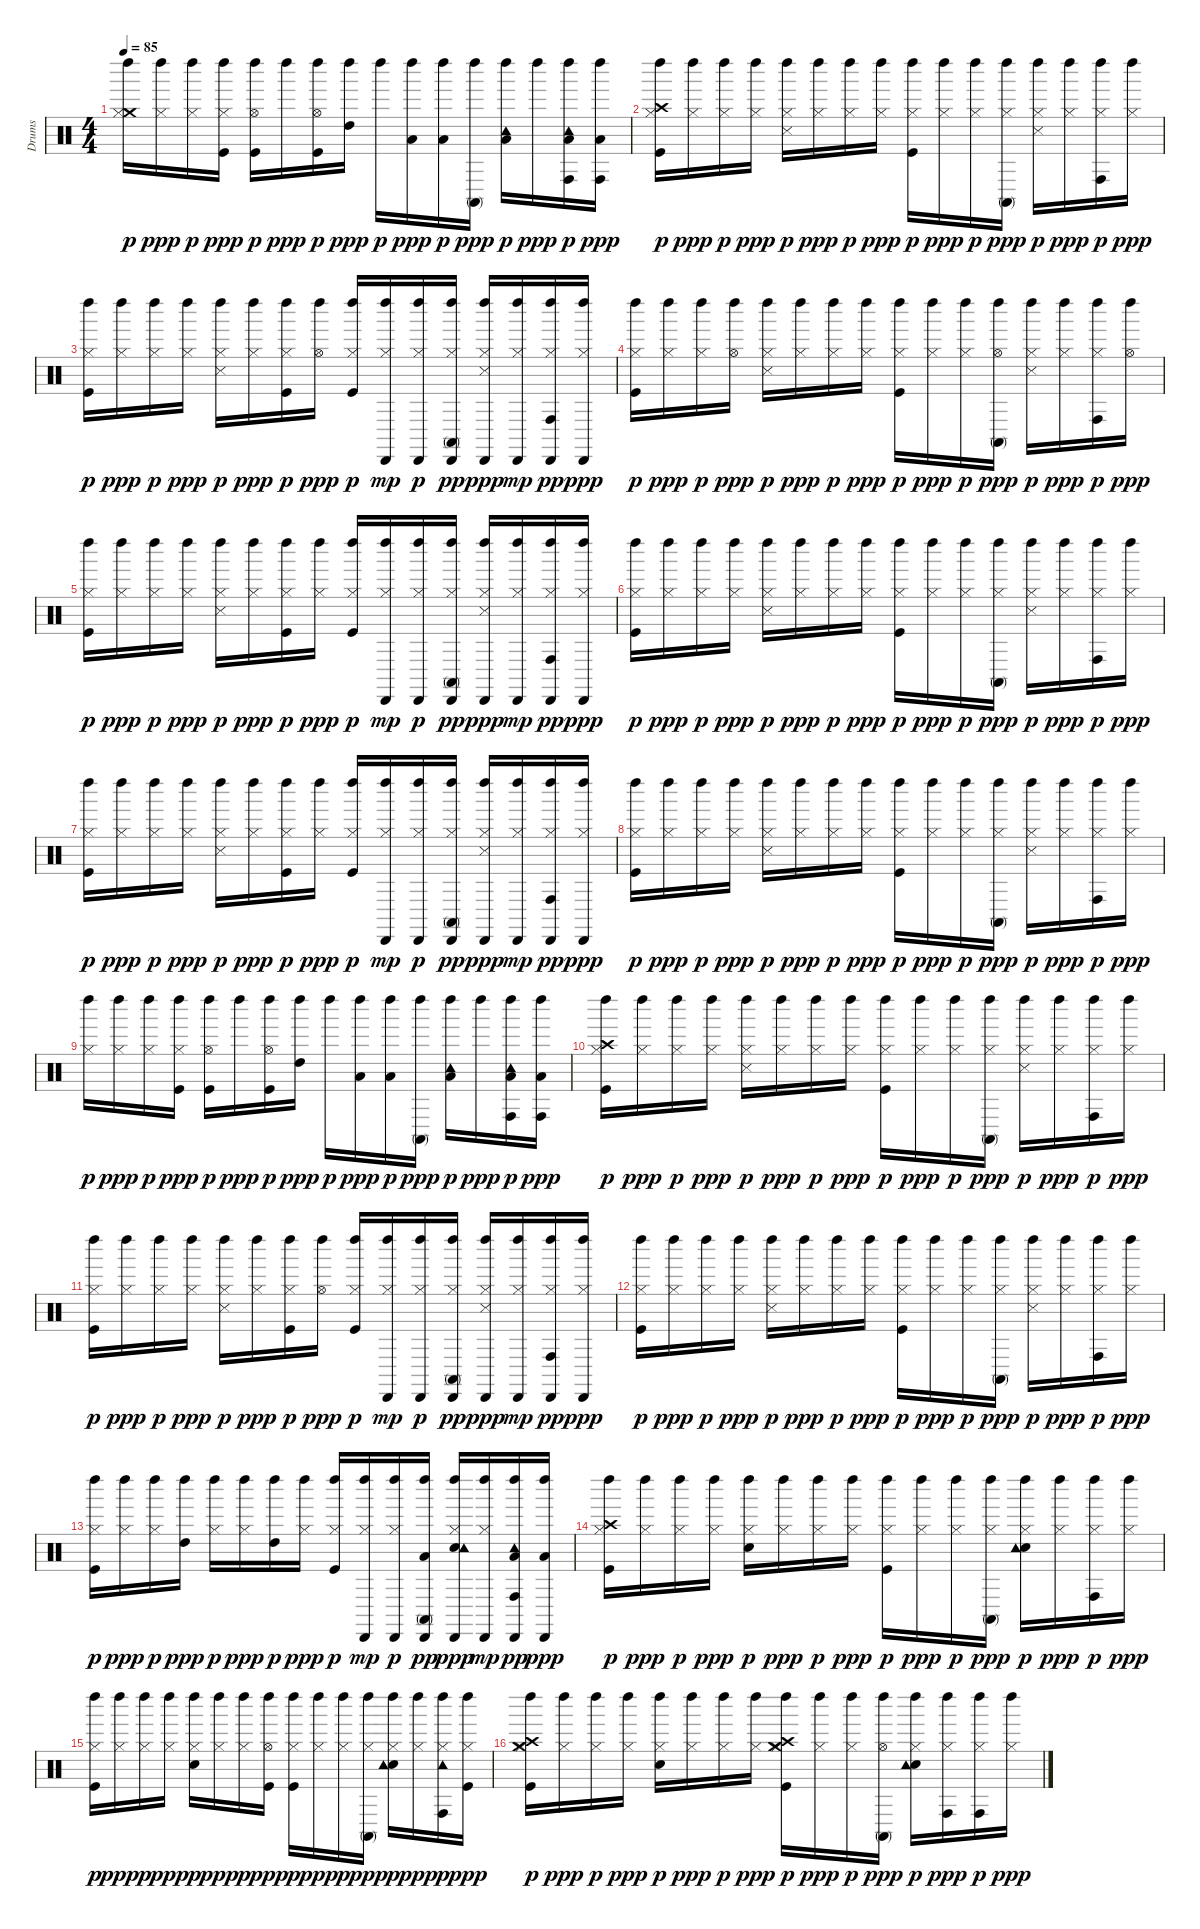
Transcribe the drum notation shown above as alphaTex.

\track ("Drums" "Drums") {instrument percussion}
\staff {score}
\articulation defaults
\ts (4 4)
\tempo 85
\clef neutral
\ks c
("Crash medium (hit)" "Hi-Hat (closed)" "Left Maraca (hit)").16{dy p} ("Hi-Hat (closed)" "Left Maraca (hit)").16{dy ppp} ("Hi-Hat (closed)" "Left Maraca (hit)").16{dy p} ("Kick (hit)" "Hi-Hat (closed)" "Left Maraca (hit)").16{dy ppp} ("Kick (hit)" "Hi-Hat (open)" "Left Maraca (hit)").16{dy p} "Left Maraca (hit)".16{dy ppp} ("Kick (hit)" "Hi-Hat (open)" "Left Maraca (hit)").16{dy p} ("High Tom (hit)" "Left Maraca (hit)").16{dy ppp} "Left Maraca (hit)".16{dy p} ("Low Tom (hit)" "Left Maraca (hit)").16{dy ppp} ("Low Tom (hit)" "Left Maraca (hit)").16{dy p} ("Conga high (mute)" "Left Maraca (hit)").16{dy ppp} ("Low Tom (hit)" "Tambourine (hit)" "Left Maraca (hit)").16{dy p} "Left Maraca (hit)".16{dy ppp} ("Low Floor Tom (hit)" "Conga high (hit)" "Tambourine (hit)" "Left Maraca (hit)").16{dy p} ("Low Floor Tom (hit)" "Conga high (hit)" "Left Maraca (hit)").16{dy ppp} |
("Kick (hit)" "Hi-Hat (closed)" "Crash high (hit)" "Left Maraca (hit)").16{dy p} ("Hi-Hat (closed)" "Left Maraca (hit)").16{dy ppp} ("Hi-Hat (closed)" "Left Maraca (hit)").16{dy p} ("Hi-Hat (closed)" "Left Maraca (hit)").16{dy ppp} ("Hi-Hat (closed)" "Snare (side stick) 3" "Left Maraca (hit)").16{dy p} ("Hi-Hat (closed)" "Left Maraca (hit)").16{dy ppp} ("Hi-Hat (closed)" "Left Maraca (hit)").16{dy p} ("Hi-Hat (closed)" "Left Maraca (hit)").16{dy ppp} ("Kick (hit)" "Hi-Hat (closed)" "Left Maraca (hit)").16{dy p} ("Hi-Hat (closed)" "Left Maraca (hit)").16{dy ppp} ("Hi-Hat (closed)" "Left Maraca (hit)").16{dy p} ("Hi-Hat (closed)" "Conga high (mute)" "Left Maraca (hit)").16{dy ppp} ("Hi-Hat (closed)" "Snare (side stick) 3" "Left Maraca (hit)").16{dy p} ("Hi-Hat (closed)" "Left Maraca (hit)").16{dy ppp} ("Hi-Hat (closed)" "Conga high (hit)" "Left Maraca (hit)").16{dy p} ("Hi-Hat (closed)" "Left Maraca (hit)").16{dy ppp} |
("Kick (hit)" "Hi-Hat (closed)" "Left Maraca (hit)").16{dy p} ("Hi-Hat (closed)" "Left Maraca (hit)").16{dy ppp} ("Hi-Hat (closed)" "Left Maraca (hit)").16{dy p} ("Hi-Hat (closed)" "Left Maraca (hit)").16{dy ppp} ("Hi-Hat (closed)" "Snare (side stick) 3" "Left Maraca (hit)").16{dy p} ("Hi-Hat (closed)" "Left Maraca (hit)").16{dy ppp} ("Kick (hit)" "Hi-Hat (closed)" "Left Maraca (hit)").16{dy p} ("Hi-Hat (open)" "Left Maraca (hit)").16{dy ppp} ("Kick (hit)" "Hi-Hat (closed)" "Left Maraca (hit)").16{dy p} ("Hi-Hat (closed)" "Left Maraca (hit)" "Cabasa (hit)").16{dy mp} ("Hi-Hat (closed)" "Left Maraca (hit)" "Cabasa (hit)").16{dy p} ("Hi-Hat (closed)" "Conga high (mute)" "Left Maraca (hit)" "Cabasa (hit)").16{dy pp} ("Hi-Hat (closed)" "Snare (side stick) 3" "Left Maraca (hit)" "Cabasa (hit)").16{dy ppp} ("Hi-Hat (closed)" "Left Maraca (hit)" "Cabasa (hit)").16{dy mp} ("Hi-Hat (closed)" "Conga high (hit)" "Left Maraca (hit)" "Cabasa (hit)").16{dy pp} ("Hi-Hat (closed)" "Left Maraca (hit)" "Cabasa (hit)").16{dy ppp} |
("Kick (hit)" "Hi-Hat (closed)" "Left Maraca (hit)").16{dy p} ("Hi-Hat (closed)" "Left Maraca (hit)").16{dy ppp} ("Hi-Hat (closed)" "Left Maraca (hit)").16{dy p} ("Hi-Hat (open)" "Left Maraca (hit)").16{dy ppp} ("Hi-Hat (closed)" "Snare (side stick) 3" "Left Maraca (hit)").16{dy p} ("Hi-Hat (closed)" "Left Maraca (hit)").16{dy ppp} ("Hi-Hat (closed)" "Left Maraca (hit)").16{dy p} ("Hi-Hat (closed)" "Left Maraca (hit)").16{dy ppp} ("Kick (hit)" "Hi-Hat (closed)" "Left Maraca (hit)").16{dy p} ("Hi-Hat (closed)" "Left Maraca (hit)").16{dy ppp} ("Hi-Hat (closed)" "Left Maraca (hit)").16{dy p} ("Hi-Hat (open)" "Conga high (mute)" "Left Maraca (hit)").16{dy ppp} ("Hi-Hat (closed)" "Snare (side stick) 3" "Left Maraca (hit)").16{dy p} ("Hi-Hat (closed)" "Left Maraca (hit)").16{dy ppp} ("Hi-Hat (closed)" "Conga high (hit)" "Left Maraca (hit)").16{dy p} ("Hi-Hat (open)" "Left Maraca (hit)").16{dy ppp} |
("Kick (hit)" "Hi-Hat (closed)" "Left Maraca (hit)").16{dy p} ("Hi-Hat (closed)" "Left Maraca (hit)").16{dy ppp} ("Hi-Hat (closed)" "Left Maraca (hit)").16{dy p} ("Hi-Hat (closed)" "Left Maraca (hit)").16{dy ppp} ("Hi-Hat (closed)" "Snare (side stick) 3" "Left Maraca (hit)").16{dy p} ("Hi-Hat (closed)" "Left Maraca (hit)").16{dy ppp} ("Kick (hit)" "Hi-Hat (closed)" "Left Maraca (hit)").16{dy p} ("Hi-Hat (closed)" "Left Maraca (hit)").16{dy ppp} ("Kick (hit)" "Hi-Hat (closed)" "Left Maraca (hit)").16{dy p} ("Hi-Hat (closed)" "Left Maraca (hit)" "Cabasa (hit)").16{dy mp} ("Hi-Hat (closed)" "Left Maraca (hit)" "Cabasa (hit)").16{dy p} ("Hi-Hat (closed)" "Conga high (mute)" "Left Maraca (hit)" "Cabasa (hit)").16{dy pp} ("Hi-Hat (closed)" "Snare (side stick) 3" "Left Maraca (hit)" "Cabasa (hit)").16{dy ppp} ("Hi-Hat (closed)" "Left Maraca (hit)" "Cabasa (hit)").16{dy mp} ("Hi-Hat (closed)" "Conga high (hit)" "Left Maraca (hit)" "Cabasa (hit)").16{dy pp} ("Hi-Hat (closed)" "Left Maraca (hit)" "Cabasa (hit)").16{dy ppp} |
("Kick (hit)" "Hi-Hat (closed)" "Left Maraca (hit)").16{dy p} ("Hi-Hat (closed)" "Left Maraca (hit)").16{dy ppp} ("Hi-Hat (closed)" "Left Maraca (hit)").16{dy p} ("Hi-Hat (closed)" "Left Maraca (hit)").16{dy ppp} ("Hi-Hat (closed)" "Snare (side stick) 3" "Left Maraca (hit)").16{dy p} ("Hi-Hat (closed)" "Left Maraca (hit)").16{dy ppp} ("Hi-Hat (closed)" "Left Maraca (hit)").16{dy p} ("Hi-Hat (closed)" "Left Maraca (hit)").16{dy ppp} ("Kick (hit)" "Hi-Hat (closed)" "Left Maraca (hit)").16{dy p} ("Hi-Hat (closed)" "Left Maraca (hit)").16{dy ppp} ("Hi-Hat (closed)" "Left Maraca (hit)").16{dy p} ("Hi-Hat (closed)" "Conga high (mute)" "Left Maraca (hit)").16{dy ppp} ("Hi-Hat (closed)" "Snare (side stick) 3" "Left Maraca (hit)").16{dy p} ("Hi-Hat (closed)" "Left Maraca (hit)").16{dy ppp} ("Hi-Hat (closed)" "Conga high (hit)" "Left Maraca (hit)").16{dy p} ("Hi-Hat (closed)" "Left Maraca (hit)").16{dy ppp} |
("Kick (hit)" "Hi-Hat (closed)" "Left Maraca (hit)").16{dy p} ("Hi-Hat (closed)" "Left Maraca (hit)").16{dy ppp} ("Hi-Hat (closed)" "Left Maraca (hit)").16{dy p} ("Hi-Hat (closed)" "Left Maraca (hit)").16{dy ppp} ("Hi-Hat (closed)" "Snare (side stick) 3" "Left Maraca (hit)").16{dy p} ("Hi-Hat (closed)" "Left Maraca (hit)").16{dy ppp} ("Kick (hit)" "Hi-Hat (closed)" "Left Maraca (hit)").16{dy p} ("Hi-Hat (closed)" "Left Maraca (hit)").16{dy ppp} ("Kick (hit)" "Hi-Hat (closed)" "Left Maraca (hit)").16{dy p} ("Hi-Hat (closed)" "Left Maraca (hit)" "Cabasa (hit)").16{dy mp} ("Hi-Hat (closed)" "Left Maraca (hit)" "Cabasa (hit)").16{dy p} ("Hi-Hat (closed)" "Conga high (mute)" "Left Maraca (hit)" "Cabasa (hit)").16{dy pp} ("Hi-Hat (closed)" "Snare (side stick) 3" "Left Maraca (hit)" "Cabasa (hit)").16{dy ppp} ("Hi-Hat (closed)" "Left Maraca (hit)" "Cabasa (hit)").16{dy mp} ("Hi-Hat (closed)" "Conga high (hit)" "Left Maraca (hit)" "Cabasa (hit)").16{dy pp} ("Hi-Hat (closed)" "Left Maraca (hit)" "Cabasa (hit)").16{dy ppp} |
("Kick (hit)" "Hi-Hat (closed)" "Left Maraca (hit)").16{dy p} ("Hi-Hat (closed)" "Left Maraca (hit)").16{dy ppp} ("Hi-Hat (closed)" "Left Maraca (hit)").16{dy p} ("Hi-Hat (closed)" "Left Maraca (hit)").16{dy ppp} ("Hi-Hat (closed)" "Snare (side stick) 3" "Left Maraca (hit)").16{dy p} ("Hi-Hat (closed)" "Left Maraca (hit)").16{dy ppp} ("Hi-Hat (closed)" "Left Maraca (hit)").16{dy p} ("Hi-Hat (closed)" "Left Maraca (hit)").16{dy ppp} ("Kick (hit)" "Hi-Hat (closed)" "Left Maraca (hit)").16{dy p} ("Hi-Hat (closed)" "Left Maraca (hit)").16{dy ppp} ("Hi-Hat (closed)" "Left Maraca (hit)").16{dy p} ("Hi-Hat (closed)" "Conga high (mute)" "Left Maraca (hit)").16{dy ppp} ("Hi-Hat (closed)" "Snare (side stick) 3" "Left Maraca (hit)").16{dy p} ("Hi-Hat (closed)" "Left Maraca (hit)").16{dy ppp} ("Hi-Hat (closed)" "Conga high (hit)" "Left Maraca (hit)").16{dy p} ("Hi-Hat (closed)" "Left Maraca (hit)").16{dy ppp} |
("Hi-Hat (closed)" "Left Maraca (hit)").16{dy p} ("Hi-Hat (closed)" "Left Maraca (hit)").16{dy ppp} ("Hi-Hat (closed)" "Left Maraca (hit)").16{dy p} ("Kick (hit)" "Hi-Hat (closed)" "Left Maraca (hit)").16{dy ppp} ("Kick (hit)" "Hi-Hat (open)" "Left Maraca (hit)").16{dy p} "Left Maraca (hit)".16{dy ppp} ("Kick (hit)" "Hi-Hat (open)" "Left Maraca (hit)").16{dy p} ("High Tom (hit)" "Left Maraca (hit)").16{dy ppp} "Left Maraca (hit)".16{dy p} ("Low Tom (hit)" "Left Maraca (hit)").16{dy ppp} ("Low Tom (hit)" "Left Maraca (hit)").16{dy p} ("Conga high (mute)" "Left Maraca (hit)").16{dy ppp} ("Low Tom (hit)" "Tambourine (hit)" "Left Maraca (hit)").16{dy p} "Left Maraca (hit)".16{dy ppp} ("Low Floor Tom (hit)" "Conga high (hit)" "Tambourine (hit)" "Left Maraca (hit)").16{dy p} ("Low Floor Tom (hit)" "Conga high (hit)" "Left Maraca (hit)").16{dy ppp} |
("Kick (hit)" "Hi-Hat (closed)" "Crash high (hit)" "Left Maraca (hit)").16{dy p} ("Hi-Hat (closed)" "Left Maraca (hit)").16{dy ppp} ("Hi-Hat (closed)" "Left Maraca (hit)").16{dy p} ("Hi-Hat (closed)" "Left Maraca (hit)").16{dy ppp} ("Hi-Hat (closed)" "Snare (side stick) 3" "Left Maraca (hit)").16{dy p} ("Hi-Hat (closed)" "Left Maraca (hit)").16{dy ppp} ("Hi-Hat (closed)" "Left Maraca (hit)").16{dy p} ("Hi-Hat (closed)" "Left Maraca (hit)").16{dy ppp} ("Kick (hit)" "Hi-Hat (closed)" "Left Maraca (hit)").16{dy p} ("Hi-Hat (closed)" "Left Maraca (hit)").16{dy ppp} ("Hi-Hat (closed)" "Left Maraca (hit)").16{dy p} ("Hi-Hat (closed)" "Conga high (mute)" "Left Maraca (hit)").16{dy ppp} ("Hi-Hat (closed)" "Snare (side stick) 3" "Left Maraca (hit)").16{dy p} ("Hi-Hat (closed)" "Left Maraca (hit)").16{dy ppp} ("Hi-Hat (closed)" "Conga high (hit)" "Left Maraca (hit)").16{dy p} ("Hi-Hat (closed)" "Left Maraca (hit)").16{dy ppp} |
("Kick (hit)" "Hi-Hat (closed)" "Left Maraca (hit)").16{dy p} ("Hi-Hat (closed)" "Left Maraca (hit)").16{dy ppp} ("Hi-Hat (closed)" "Left Maraca (hit)").16{dy p} ("Hi-Hat (closed)" "Left Maraca (hit)").16{dy ppp} ("Hi-Hat (closed)" "Snare (side stick) 3" "Left Maraca (hit)").16{dy p} ("Hi-Hat (closed)" "Left Maraca (hit)").16{dy ppp} ("Kick (hit)" "Hi-Hat (closed)" "Left Maraca (hit)").16{dy p} ("Hi-Hat (open)" "Left Maraca (hit)").16{dy ppp} ("Kick (hit)" "Hi-Hat (closed)" "Left Maraca (hit)").16{dy p} ("Hi-Hat (closed)" "Left Maraca (hit)" "Cabasa (hit)").16{dy mp} ("Hi-Hat (closed)" "Left Maraca (hit)" "Cabasa (hit)").16{dy p} ("Hi-Hat (closed)" "Conga high (mute)" "Left Maraca (hit)" "Cabasa (hit)").16{dy pp} ("Hi-Hat (closed)" "Snare (side stick) 3" "Left Maraca (hit)" "Cabasa (hit)").16{dy ppp} ("Hi-Hat (closed)" "Left Maraca (hit)" "Cabasa (hit)").16{dy mp} ("Hi-Hat (closed)" "Conga high (hit)" "Left Maraca (hit)" "Cabasa (hit)").16{dy pp} ("Hi-Hat (closed)" "Left Maraca (hit)" "Cabasa (hit)").16{dy ppp} |
("Kick (hit)" "Hi-Hat (closed)" "Left Maraca (hit)").16{dy p} ("Hi-Hat (closed)" "Left Maraca (hit)").16{dy ppp} ("Hi-Hat (closed)" "Left Maraca (hit)").16{dy p} ("Hi-Hat (closed)" "Left Maraca (hit)").16{dy ppp} ("Hi-Hat (closed)" "Snare (side stick) 3" "Left Maraca (hit)").16{dy p} ("Hi-Hat (closed)" "Left Maraca (hit)").16{dy ppp} ("Hi-Hat (closed)" "Left Maraca (hit)").16{dy p} ("Hi-Hat (closed)" "Left Maraca (hit)").16{dy ppp} ("Kick (hit)" "Hi-Hat (closed)" "Left Maraca (hit)").16{dy p} ("Hi-Hat (closed)" "Left Maraca (hit)").16{dy ppp} ("Hi-Hat (closed)" "Left Maraca (hit)").16{dy p} ("Hi-Hat (closed)" "Conga high (mute)" "Left Maraca (hit)").16{dy ppp} ("Hi-Hat (closed)" "Snare (side stick) 3" "Left Maraca (hit)").16{dy p} ("Hi-Hat (closed)" "Left Maraca (hit)").16{dy ppp} ("Hi-Hat (closed)" "Conga high (hit)" "Left Maraca (hit)").16{dy p} ("Hi-Hat (closed)" "Left Maraca (hit)").16{dy ppp} |
("Kick (hit)" "Hi-Hat (closed)" "Left Maraca (hit)").16{dy p} ("Hi-Hat (closed)" "Left Maraca (hit)").16{dy ppp} ("Hi-Hat (closed)" "Left Maraca (hit)").16{dy p} ("High Tom (hit)" "Left Maraca (hit)").16{dy ppp} ("Hi-Hat (closed)" "Left Maraca (hit)").16{dy p} ("Hi-Hat (closed)" "Left Maraca (hit)").16{dy ppp} ("High Tom (hit)" "Left Maraca (hit)").16{dy p} ("Hi-Hat (closed)" "Left Maraca (hit)").16{dy ppp} ("Kick (hit)" "Hi-Hat (closed)" "Left Maraca (hit)").16{dy p} ("Hi-Hat (closed)" "Left Maraca (hit)" "Cabasa (hit)").16{dy mp} ("Hi-Hat (closed)" "Left Maraca (hit)" "Cabasa (hit)").16{dy p} ("Low Tom (hit)" "Conga high (mute)" "Left Maraca (hit)" "Cabasa (hit)").16{dy pp} ("Snare (hit) 2" "Hi-Hat (closed)" "Tambourine (hit)" "Left Maraca (hit)" "Cabasa (hit)").16{dy ppp} ("Hi-Hat (closed)" "Left Maraca (hit)" "Cabasa (hit)").16{dy mp} ("Low Floor Tom (hit)" "Conga high (hit)" "Tambourine (hit)" "Left Maraca (hit)" "Cabasa (hit)").16{dy pp} ("Low Floor Tom (hit)" "Left Maraca (hit)" "Cabasa (hit)").16{dy ppp} |
("Kick (hit)" "Hi-Hat (closed)" "Crash high (hit)" "Left Maraca (hit)").16{dy p} ("Hi-Hat (closed)" "Left Maraca (hit)").16{dy ppp} ("Hi-Hat (closed)" "Left Maraca (hit)").16{dy p} ("Hi-Hat (closed)" "Left Maraca (hit)").16{dy ppp} ("Snare (hit) 2" "Hi-Hat (closed)" "Left Maraca (hit)").16{dy p} ("Hi-Hat (closed)" "Left Maraca (hit)").16{dy ppp} ("Hi-Hat (closed)" "Left Maraca (hit)").16{dy p} ("Hi-Hat (closed)" "Left Maraca (hit)").16{dy ppp} ("Kick (hit)" "Hi-Hat (closed)" "Left Maraca (hit)").16{dy p} ("Hi-Hat (closed)" "Left Maraca (hit)").16{dy ppp} ("Hi-Hat (closed)" "Left Maraca (hit)").16{dy p} ("Hi-Hat (closed)" "Conga high (mute)" "Left Maraca (hit)").16{dy ppp} ("Snare (hit) 2" "Hi-Hat (closed)" "Tambourine (hit)" "Left Maraca (hit)").16{dy p} ("Hi-Hat (closed)" "Left Maraca (hit)").16{dy ppp} ("Hi-Hat (closed)" "Conga high (hit)" "Left Maraca (hit)").16{dy p} ("Hi-Hat (closed)" "Left Maraca (hit)").16{dy ppp} |
("Kick (hit)" "Hi-Hat (closed)" "Left Maraca (hit)").16{dy p} ("Hi-Hat (closed)" "Left Maraca (hit)").16{dy ppp} ("Hi-Hat (closed)" "Left Maraca (hit)").16{dy p} ("Hi-Hat (closed)" "Left Maraca (hit)").16{dy ppp} ("Snare (hit) 2" "Hi-Hat (closed)" "Left Maraca (hit)").16{dy p} ("Hi-Hat (closed)" "Left Maraca (hit)").16{dy ppp} ("Hi-Hat (closed)" "Left Maraca (hit)").16{dy p} ("Kick (hit)" "Hi-Hat (open)" "Left Maraca (hit)").16{dy ppp} ("Kick (hit)" "Hi-Hat (closed)" "Left Maraca (hit)").16{dy p} ("Hi-Hat (closed)" "Left Maraca (hit)").16{dy ppp} ("Hi-Hat (closed)" "Left Maraca (hit)").16{dy p} ("Hi-Hat (closed)" "Conga high (mute)" "Left Maraca (hit)").16{dy ppp} ("Snare (hit) 2" "Hi-Hat (closed)" "Tambourine (hit)" "Left Maraca (hit)").16{dy p} ("Hi-Hat (closed)" "Left Maraca (hit)").16{dy ppp} ("Hi-Hat (closed)" "Conga high (hit)" "Tambourine (hit)" "Left Maraca (hit)").16{dy p} ("Kick (hit)" "Hi-Hat (closed)" "Left Maraca (hit)").16{dy ppp} |
("Crash medium (hit)" "Crash high (hit)" "Kick (hit)" "Hi-Hat (closed)" "Left Maraca (hit)").16{dy p} ("Hi-Hat (closed)" "Left Maraca (hit)").16{dy ppp} ("Hi-Hat (closed)" "Left Maraca (hit)").16{dy p} ("Hi-Hat (closed)" "Left Maraca (hit)").16{dy ppp} ("Snare (hit) 2" "Hi-Hat (closed)" "Left Maraca (hit)").16{dy p} ("Hi-Hat (closed)" "Left Maraca (hit)").16{dy ppp} ("Hi-Hat (closed)" "Left Maraca (hit)").16{dy p} ("Hi-Hat (closed)" "Left Maraca (hit)").16{dy ppp} ("Crash medium (hit)" "Crash high (hit)" "Kick (hit)" "Hi-Hat (closed)" "Left Maraca (hit)").16{dy p} ("Hi-Hat (closed)" "Left Maraca (hit)").16{dy ppp} ("Hi-Hat (closed)" "Left Maraca (hit)").16{dy p} ("Hi-Hat (open)" "Conga high (mute)" "Left Maraca (hit)").16{dy ppp} ("Snare (hit) 2" "Hi-Hat (closed)" "Tambourine (hit)" "Left Maraca (hit)").16{dy p} ("Hi-Hat (closed)" "Conga high (hit)" "Left Maraca (hit)").16{dy ppp} ("Hi-Hat (closed)" "Conga high (hit)" "Left Maraca (hit)").16{dy p} ("Hi-Hat (closed)" "Left Maraca (hit)").16{dy ppp}
